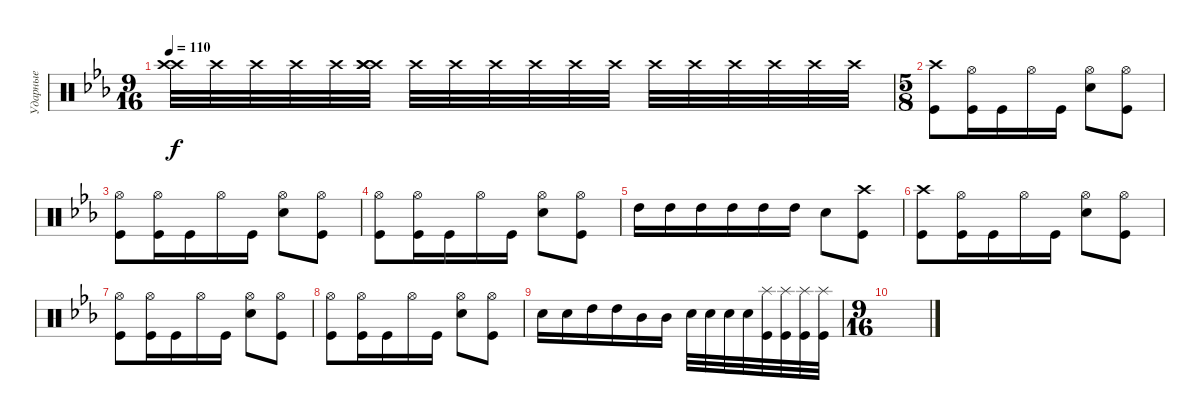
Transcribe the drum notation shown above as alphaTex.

\track ("Ударные" "Ударные") {instrument percussion}
\staff {score}
\articulation defaults
\ts (9 16)
\tempo 110
\clef neutral
\ks cminor
("Crash high (hit)" "Crash high (hit)").32{dy f volume 0} "Crash high (hit)".32 "Crash high (hit)".32{volume 13} "Crash high (hit)".32 "Crash high (hit)".32 ("Crash high (hit)" "Crash high (hit)" "Crash high (hit)").32 "Crash high (hit)".32 "Crash high (hit)".32 "Crash high (hit)".32 "Crash high (hit)".32 "Crash high (hit)".32 "Crash high (hit)".32 "Crash high (hit)".32 "Crash high (hit)".32 "Crash high (hit)".32 "Crash high (hit)".32 "Crash high (hit)".32 "Crash high (hit)".32 |
\ts (5 8)
("Kick (hit)" "Crash high (hit)").8 ("Kick (hit)" "Hi-Hat (open)").16 "Kick (hit)".16 "Hi-Hat (open)".16 "Kick (hit)".16 ("Snare (hit) 2" "Hi-Hat (open)").8 ("Kick (hit)" "Hi-Hat (open)").8 |
("Kick (hit)" "Hi-Hat (open)").8 ("Kick (hit)" "Hi-Hat (open)").16 "Kick (hit)".16 "Hi-Hat (open)".16 "Kick (hit)".16 ("Snare (hit) 2" "Hi-Hat (open)").8 ("Kick (hit)" "Hi-Hat (open)").8 |
("Kick (hit)" "Hi-Hat (open)").8 ("Kick (hit)" "Hi-Hat (open)").16 "Kick (hit)".16 "Hi-Hat (open)".16 "Kick (hit)".16 ("Snare (hit) 2" "Hi-Hat (open)").8 ("Kick (hit)" "Hi-Hat (open)").8 |
"High Tom (hit)".16 "High Tom (hit)".16 "High Tom (hit)".16 "High Tom (hit)".16 "High Tom (hit)".16 "High Tom (hit)".16 "Snare (hit) 2".8 ("Kick (hit)" "Crash high (hit)").8 |
("Kick (hit)" "Crash high (hit)").8 ("Kick (hit)" "Hi-Hat (open)").16 "Kick (hit)".16 "Hi-Hat (open)".16 "Kick (hit)".16 ("Snare (hit) 2" "Hi-Hat (open)").8 ("Kick (hit)" "Hi-Hat (open)").8 |
("Kick (hit)" "Hi-Hat (open)").8 ("Kick (hit)" "Hi-Hat (open)").16 "Kick (hit)".16 "Hi-Hat (open)".16 "Kick (hit)".16 ("Snare (hit) 2" "Hi-Hat (open)").8 ("Kick (hit)" "Hi-Hat (open)").8 |
("Kick (hit)" "Hi-Hat (open)").8 ("Kick (hit)" "Hi-Hat (open)").16 "Kick (hit)".16 "Hi-Hat (open)".16 "Kick (hit)".16 ("Snare (hit) 2" "Hi-Hat (open)").8 ("Kick (hit)" "Hi-Hat (open)").8 |
"Snare (hit) 2".16 "Snare (hit) 2".16 "High Tom (hit)".16 "High Tom (hit)".16 "Mid Tom (hit)".16 "Mid Tom (hit)".16 "Snare (hit) 2".32 "Snare (hit) 2".32 "Snare (hit) 2".32 "Snare (hit) 2".32 ("Kick (hit)" "Splash (hit)").32 ("Kick (hit)" "Splash (hit)").32 ("Kick (hit)" "Splash (hit)").32 ("Kick (hit)" "Splash (hit)").32 |
\ts (9 16)
